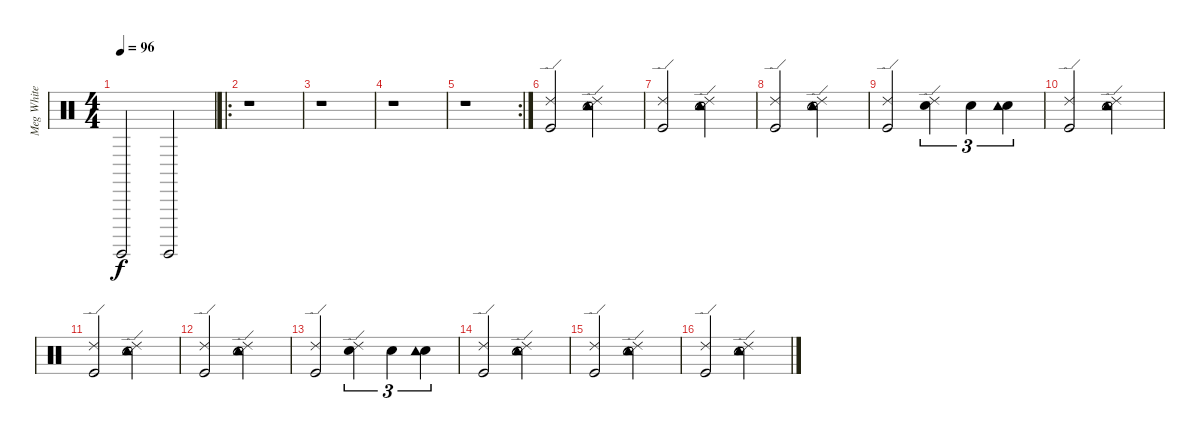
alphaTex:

\track ("Meg White" "Meg White") {instrument percussion}
\staff {score}
\articulation defaults
\ts (4 4)
\tempo 96
\clef neutral
\ks c "Surdo (hit)".2{dy f} "Surdo (hit)".2
|
\ro
r.1 |
r.1 |
r.1 |
\rc 2
r.1 |
("Kick (hit)" "Ride (edge) 2").2 ("Tambourine (hit)" "Electric Snare (hit)" "Ride (edge) 2").2 |
("Kick (hit)" "Ride (edge) 2").2 ("Tambourine (hit)" "Electric Snare (hit)" "Ride (edge) 2").2 |
("Kick (hit)" "Ride (edge) 2").2 ("Tambourine (hit)" "Electric Snare (hit)" "Ride (edge) 2").2 |
("Kick (hit)" "Ride (edge) 2").2 ("Electric Snare (hit)" "Ride (edge) 2").4{tu (3 2)} "Electric Snare (hit)".4{tu (3 2)} ("Electric Snare (hit)" "Tambourine (hit)").4{tu (3 2)} |
("Kick (hit)" "Ride (edge) 2").2 ("Electric Snare (hit)" "Tambourine (hit)" "Ride (edge) 2").2 |
("Kick (hit)" "Ride (edge) 2").2 ("Electric Snare (hit)" "Tambourine (hit)" "Ride (edge) 2").2 |
("Kick (hit)" "Ride (edge) 2").2 ("Electric Snare (hit)" "Tambourine (hit)" "Ride (edge) 2").2 |
("Kick (hit)" "Ride (edge) 2").2 ("Electric Snare (hit)" "Ride (edge) 2").4{tu (3 2)} "Electric Snare (hit)".4{tu (3 2)} ("Electric Snare (hit)" "Tambourine (hit)").4{tu (3 2)} |
("Kick (hit)" "Ride (edge) 2").2 ("Electric Snare (hit)" "Tambourine (hit)" "Ride (edge) 2").2 |
("Kick (hit)" "Ride (edge) 2").2 ("Electric Snare (hit)" "Tambourine (hit)" "Ride (edge) 2").2 |
("Kick (hit)" "Ride (edge) 2").2 ("Electric Snare (hit)" "Tambourine (hit)" "Ride (edge) 2").2
